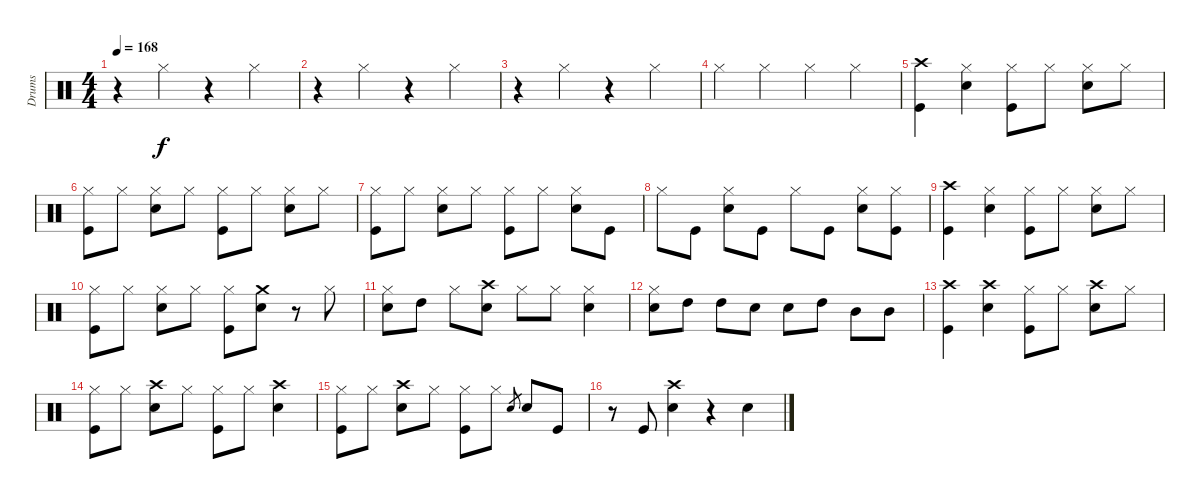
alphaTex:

\track ("Drums" "Drums") {instrument percussion}
\staff {score}
\articulation defaults
\ts (4 4)
\tempo 168
\clef neutral
\ks c
r.4{dy f} "Hi-Hat (closed)".4 r.4 "Hi-Hat (closed)".4 |
r.4 "Hi-Hat (closed)".4 r.4 "Hi-Hat (closed)".4 |
r.4 "Hi-Hat (closed)".4 r.4 "Hi-Hat (closed)".4 |
"Hi-Hat (closed)".4 "Hi-Hat (closed)".4 "Hi-Hat (closed)".4 "Hi-Hat (closed)".4 |
("Crash high (hit)" "Kick (hit)").4 ("Hi-Hat (closed)" "Electric Snare (hit)").4 ("Hi-Hat (closed)" "Kick (hit)").8 "Hi-Hat (closed)".8 ("Hi-Hat (closed)" "Electric Snare (hit)").8 "Hi-Hat (closed)".8 |
("Hi-Hat (closed)" "Kick (hit)").8 "Hi-Hat (closed)".8 ("Hi-Hat (closed)" "Electric Snare (hit)").8 "Hi-Hat (closed)".8 ("Hi-Hat (closed)" "Kick (hit)").8 "Hi-Hat (closed)".8 ("Hi-Hat (closed)" "Electric Snare (hit)").8 "Hi-Hat (closed)".8 |
("Hi-Hat (closed)" "Kick (hit)").8 "Hi-Hat (closed)".8 ("Hi-Hat (closed)" "Electric Snare (hit)").8 "Hi-Hat (closed)".8 ("Hi-Hat (closed)" "Kick (hit)").8 "Hi-Hat (closed)".8 ("Hi-Hat (closed)" "Electric Snare (hit)").8 "Kick (hit)".8 |
"Hi-Hat (closed)".8 "Kick (hit)".8 ("Hi-Hat (closed)" "Electric Snare (hit)").8 "Kick (hit)".8 "Hi-Hat (closed)".8 "Kick (hit)".8 ("Hi-Hat (closed)" "Electric Snare (hit)").8 ("Hi-Hat (closed)" "Kick (hit)").8 |
("Crash high (hit)" "Kick (hit)").4 ("Hi-Hat (closed)" "Electric Snare (hit)").4 ("Hi-Hat (closed)" "Kick (hit)").8 "Hi-Hat (closed)".8 ("Hi-Hat (closed)" "Electric Snare (hit)").8 "Hi-Hat (closed)".8 |
("Hi-Hat (closed)" "Kick (hit)").8 "Hi-Hat (closed)".8 ("Hi-Hat (closed)" "Electric Snare (hit)").8 "Hi-Hat (closed)".8 ("Hi-Hat (closed)" "Kick (hit)").8 ("Crash medium (hit)" "Electric Snare (hit)").8 r.8 "Hi-Hat (closed)".8 |
("Hi-Hat (closed)" "Electric Snare (hit)").8 "High Tom (hit)".8 "Hi-Hat (closed)".8 ("Crash high (hit)" "Electric Snare (hit)").8 "Hi-Hat (closed)".8 "Hi-Hat (closed)".8 ("Hi-Hat (closed)" "Electric Snare (hit)").4 |
("Hi-Hat (closed)" "Electric Snare (hit)").8 "High Tom (hit)".8 "High Tom (hit)".8 "Electric Snare (hit)".8 "Electric Snare (hit)".8 "High Tom (hit)".8 "Mid Tom (hit)".8 "Mid Tom (hit)".8 |
("Crash high (hit)" "Kick (hit)").4 ("Crash high (hit)" "Electric Snare (hit)").4 ("Hi-Hat (closed)" "Kick (hit)").8 "Hi-Hat (closed)".8 ("Crash high (hit)" "Electric Snare (hit)").8 "Hi-Hat (closed)".8 |
("Hi-Hat (closed)" "Kick (hit)").8 "Hi-Hat (closed)".8 ("Crash high (hit)" "Electric Snare (hit)").8 "Hi-Hat (closed)".8 ("Hi-Hat (closed)" "Kick (hit)").8 "Hi-Hat (closed)".8 ("Crash high (hit)" "Electric Snare (hit)").4 |
("Hi-Hat (closed)" "Kick (hit)").8 "Hi-Hat (closed)".8 ("Crash high (hit)" "Electric Snare (hit)").8 "Hi-Hat (closed)".8 ("Hi-Hat (closed)" "Kick (hit)").8 "Hi-Hat (closed)".8 "Electric Snare (hit)".8{gr} "Electric Snare (hit)".8 "Kick (hit)".8 |
r.8 "Kick (hit)".8 ("Crash high (hit)" "Electric Snare (hit)").4 r.4 "Electric Snare (hit)".4
